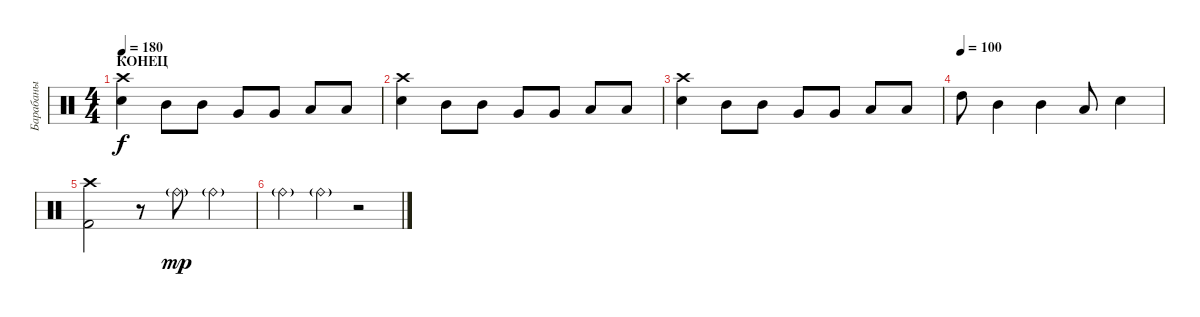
\track ("Барабаны" "Барабаны") {instrument percussion}
\staff {score}
\articulation defaults
\ts (4 4)
\section ("" "КОНЕЦ")
\tempo 180
\clef neutral
\ks c
("Crash high (hit)" "Snare (hit) 2").4{dy f} "Mid Tom (hit)".8 "Mid Tom (hit)".8 "Very Low Tom (hit)".8 "Very Low Tom (hit)".8 "Low Floor Tom (hit)".8 "Low Floor Tom (hit)".8 |
("Crash high (hit)" "Snare (hit) 2").4 "Mid Tom (hit)".8 "Mid Tom (hit)".8 "Very Low Tom (hit)".8 "Very Low Tom (hit)".8 "Low Floor Tom (hit)".8 "Low Floor Tom (hit)".8 |
("Crash high (hit)" "Snare (hit) 2").4 "Mid Tom (hit)".8 "Mid Tom (hit)".8 "Very Low Tom (hit)".8 "Very Low Tom (hit)".8 "Low Floor Tom (hit)".8 "Low Floor Tom (hit)".8 |
\tempo (100)
"High Tom (hit)".8 "Mid Tom (hit)".4 "Mid Tom (hit)".4 "Low Floor Tom (hit)".8 "Snare (hit) 2".4 |
("Crash high (hit)" "Kick (hit) 2").2 r.8 "Ride (bell)"{g}.8{dy mp} "Ride (bell)"{g}.4 |
"Ride (bell)"{g}.4 "Ride (bell)"{g}.4 r.2
